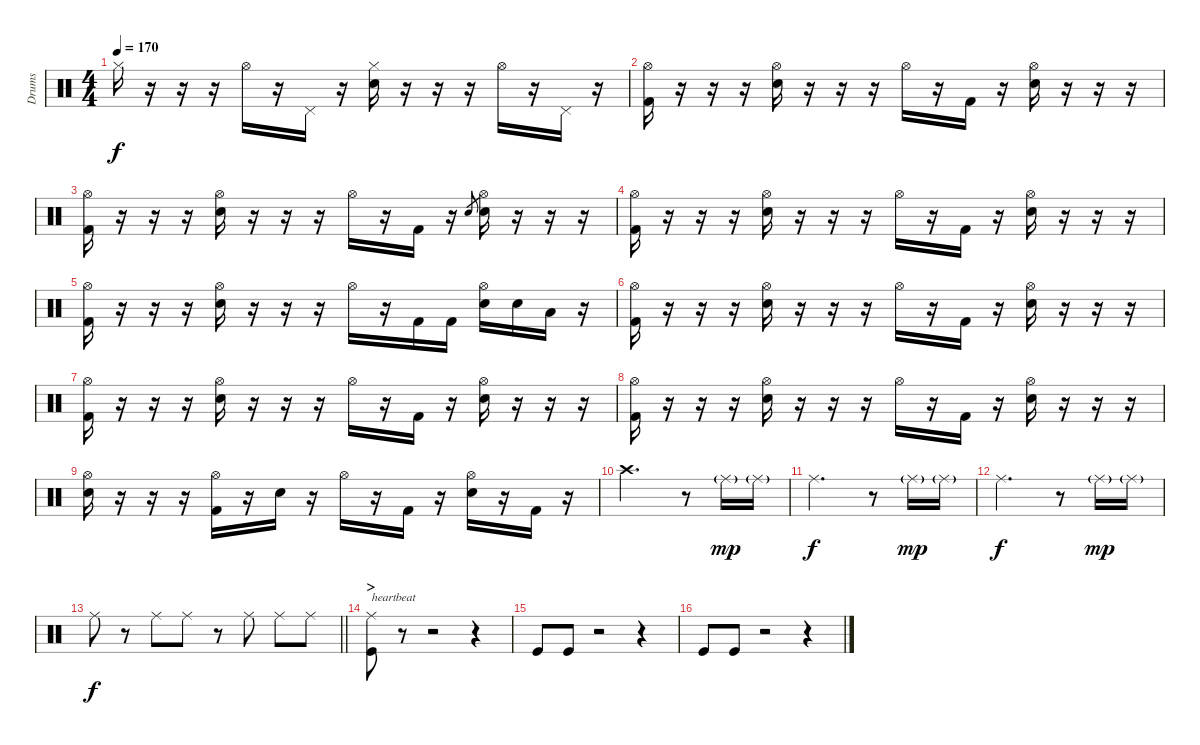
\track ("Drums" "Drums") {instrument percussion}
\staff {score}
\articulation defaults
\ts (4 4)
\tempo 170
\clef neutral
\ks c "Hi-Hat (closed)".16{dy f}
r.16 r.16 r.16 "Hi-Hat (open)".16 r.16 "Pedal Hi-Hat (hit)".16 r.16 ("Hi-Hat (closed)" "Electric Snare (hit)").16 r.16 r.16 r.16 "Hi-Hat (open)".16 r.16 "Pedal Hi-Hat (hit)".16 r.16 |
("Hi-Hat (open)" "Kick (hit) 2").16 r.16 r.16 r.16 ("Hi-Hat (open)" "Electric Snare (hit)").16 r.16 r.16 r.16 "Hi-Hat (open)".16 r.16 "Kick (hit) 2".16 r.16 ("Hi-Hat (open)" "Electric Snare (hit)").16 r.16 r.16 r.16 |
("Hi-Hat (open)" "Kick (hit) 2").16 r.16 r.16 r.16 ("Hi-Hat (open)" "Electric Snare (hit)").16 r.16 r.16 r.16 "Hi-Hat (open)".16 r.16 "Kick (hit) 2".16 r.16 "Electric Snare (hit)".8{gr} ("Hi-Hat (open)" "Electric Snare (hit)").16 r.16 r.16 r.16 |
("Hi-Hat (open)" "Kick (hit) 2").16 r.16 r.16 r.16 ("Hi-Hat (open)" "Electric Snare (hit)").16 r.16 r.16 r.16 "Hi-Hat (open)".16 r.16 "Kick (hit) 2".16 r.16 ("Hi-Hat (open)" "Electric Snare (hit)").16 r.16 r.16 r.16 |
("Hi-Hat (open)" "Kick (hit) 2").16 r.16 r.16 r.16 ("Hi-Hat (open)" "Electric Snare (hit)").16 r.16 r.16 r.16 "Hi-Hat (open)".16 r.16 "Kick (hit) 2".16 "Kick (hit) 2".16 ("Hi-Hat (open)" "Electric Snare (hit)").16 "Electric Snare (hit)".16 "Low Tom (hit)".16 r.16 |
("Hi-Hat (open)" "Kick (hit) 2").16 r.16 r.16 r.16 ("Hi-Hat (open)" "Electric Snare (hit)").16 r.16 r.16 r.16 "Hi-Hat (open)".16 r.16 "Kick (hit) 2".16 r.16 ("Hi-Hat (open)" "Electric Snare (hit)").16 r.16 r.16 r.16 |
("Hi-Hat (open)" "Kick (hit) 2").16 r.16 r.16 r.16 ("Hi-Hat (open)" "Electric Snare (hit)").16 r.16 r.16 r.16 "Hi-Hat (open)".16 r.16 "Kick (hit) 2".16 r.16 ("Hi-Hat (open)" "Electric Snare (hit)").16 r.16 r.16 r.16 |
("Hi-Hat (open)" "Kick (hit) 2").16 r.16 r.16 r.16 ("Hi-Hat (open)" "Electric Snare (hit)").16 r.16 r.16 r.16 "Hi-Hat (open)".16 r.16 "Kick (hit) 2".16 r.16 ("Hi-Hat (open)" "Electric Snare (hit)").16 r.16 r.16 r.16 |
("Hi-Hat (open)" "Electric Snare (hit)").16 r.16 r.16 r.16 ("Hi-Hat (open)" "Kick (hit) 2").16 r.16 "Electric Snare (hit)".16 r.16 "Hi-Hat (open)".16 r.16 "Kick (hit) 2".16 r.16 ("Hi-Hat (open)" "Electric Snare (hit)").16 r.16 "Kick (hit) 2".16 r.16 |
"Crash high (hit)".2{d} r.8 "Ride (middle)"{g}.16{dy mp} "Ride (middle)"{g}.16 |
"Ride (middle)".2{d dy f} r.8 "Ride (middle)"{g}.16{dy mp} "Ride (middle)"{g}.16 |
"Ride (middle)".2{d dy f} r.8 "Ride (middle)"{g}.16{dy mp} "Ride (middle)"{g}.16 |
\barLineRight lightlight "Ride (middle)".8{dy f}
r.8 "Ride (middle)".8 "Ride (middle)".8 r.8 "Ride (middle)".8 "Ride (middle)".8 "Ride (middle)".8 |
\section ("" ">")
("Ride (middle)" "Kick (hit)").8{txt "heartbeat"} r.8 r.2 r.4 |
"Kick (hit)".8 "Kick (hit)".8 r.2 r.4 |
"Kick (hit)".8 "Kick (hit)".8 r.2 r.4
